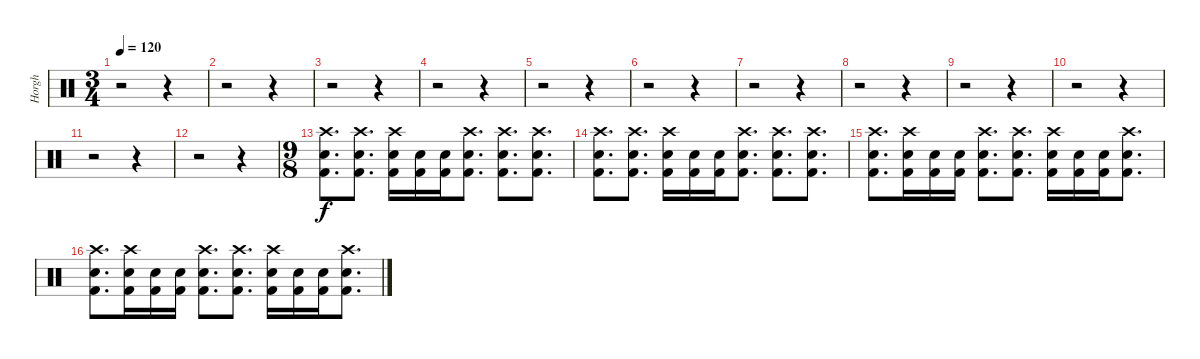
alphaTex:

\track ("Horgh" "Horgh") {instrument percussion}
\staff {score}
\articulation defaults
\ts (3 4)
\tempo 120
\clef neutral
\ks c
r.2{dy f} r.4 |
r.2 r.4 |
r.2 r.4 |
r.2 r.4 |
r.2 r.4 |
r.2 r.4 |
r.2 r.4 |
r.2 r.4 |
r.2 r.4 |
r.2 r.4 |
r.2 r.4 |
r.2 r.4 |
\ts (9 8)
("Crash high (hit)" "Snare (hit) 2" "Kick (hit) 2").8{d} ("Crash high (hit)" "Snare (hit) 2" "Kick (hit) 2").8{d} ("Crash high (hit)" "Snare (hit) 2" "Kick (hit) 2").16 ("Snare (hit) 2" "Kick (hit) 2").16 ("Snare (hit) 2" "Kick (hit) 2").16 ("Crash high (hit)" "Snare (hit) 2" "Kick (hit) 2").8{d} ("Crash high (hit)" "Snare (hit) 2" "Kick (hit) 2").8{d} ("Crash high (hit)" "Snare (hit) 2" "Kick (hit) 2").8{d} |
("Crash high (hit)" "Snare (hit) 2" "Kick (hit) 2").8{d} ("Crash high (hit)" "Snare (hit) 2" "Kick (hit) 2").8{d} ("Crash high (hit)" "Snare (hit) 2" "Kick (hit) 2").16 ("Snare (hit) 2" "Kick (hit) 2").16 ("Snare (hit) 2" "Kick (hit) 2").16 ("Crash high (hit)" "Snare (hit) 2" "Kick (hit) 2").8{d} ("Crash high (hit)" "Snare (hit) 2" "Kick (hit) 2").8{d} ("Crash high (hit)" "Snare (hit) 2" "Kick (hit) 2").8{d} |
("Crash high (hit)" "Snare (hit) 2" "Kick (hit) 2").8{d} ("Crash high (hit)" "Snare (hit) 2" "Kick (hit) 2").16 ("Snare (hit) 2" "Kick (hit) 2").16 ("Snare (hit) 2" "Kick (hit) 2").16 ("Crash high (hit)" "Snare (hit) 2" "Kick (hit) 2").8{d} ("Crash high (hit)" "Snare (hit) 2" "Kick (hit) 2").8{d} ("Crash high (hit)" "Snare (hit) 2" "Kick (hit) 2").16 ("Snare (hit) 2" "Kick (hit) 2").16 ("Snare (hit) 2" "Kick (hit) 2").16 ("Crash high (hit)" "Snare (hit) 2" "Kick (hit) 2").8{d} |
("Crash high (hit)" "Snare (hit) 2" "Kick (hit) 2").8{d} ("Crash high (hit)" "Snare (hit) 2" "Kick (hit) 2").16 ("Snare (hit) 2" "Kick (hit) 2").16 ("Snare (hit) 2" "Kick (hit) 2").16 ("Crash high (hit)" "Snare (hit) 2" "Kick (hit) 2").8{d} ("Crash high (hit)" "Snare (hit) 2" "Kick (hit) 2").8{d} ("Crash high (hit)" "Snare (hit) 2" "Kick (hit) 2").16 ("Snare (hit) 2" "Kick (hit) 2").16 ("Snare (hit) 2" "Kick (hit) 2").16 ("Crash high (hit)" "Snare (hit) 2" "Kick (hit) 2").8{d}
